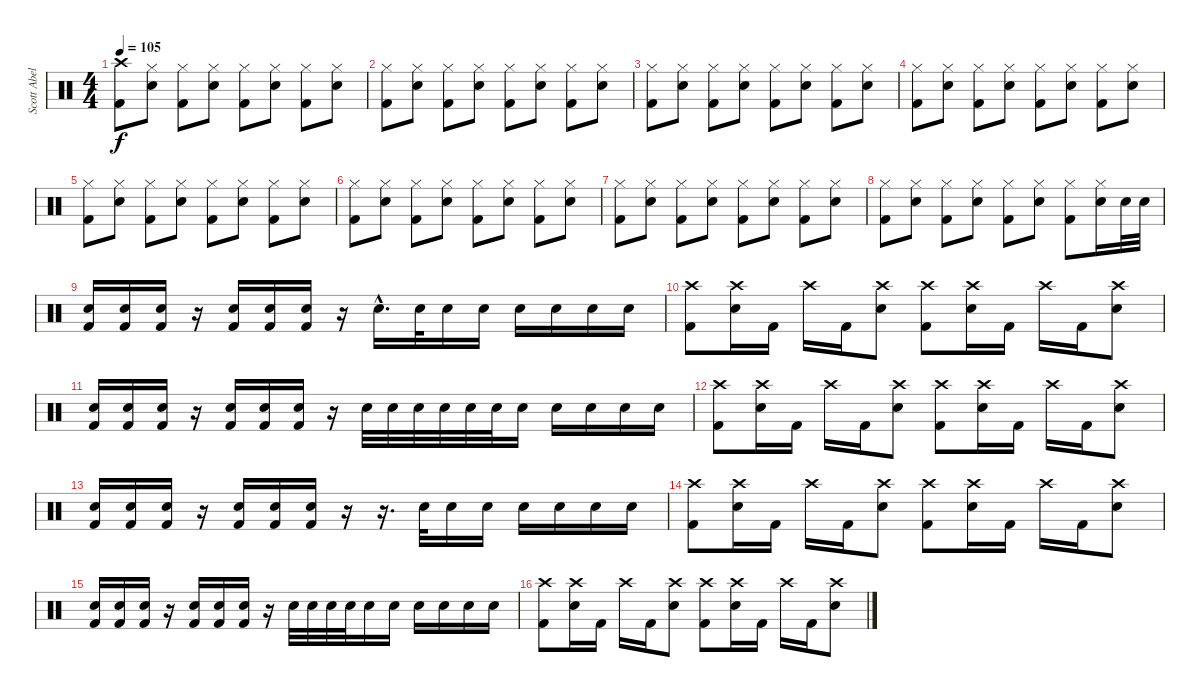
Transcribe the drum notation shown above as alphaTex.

\track ("Scott Abels - Drums" "Scott Abel") {instrument percussion}
\staff {score}
\articulation defaults
\ts (4 4)
\tempo 105
\clef neutral
\ks c
("Crash high (hit)" "Kick (hit) 2").8{dy f} ("Hi-Hat (closed)" "Electric Snare (hit)").8 ("Hi-Hat (closed)" "Kick (hit) 2").8 ("Hi-Hat (closed)" "Electric Snare (hit)").8 ("Hi-Hat (closed)" "Kick (hit) 2").8 ("Hi-Hat (closed)" "Electric Snare (hit)").8 ("Hi-Hat (closed)" "Kick (hit) 2").8 ("Hi-Hat (closed)" "Electric Snare (hit)").8 |
("Hi-Hat (closed)" "Kick (hit) 2").8 ("Hi-Hat (closed)" "Electric Snare (hit)").8 ("Hi-Hat (closed)" "Kick (hit) 2").8 ("Hi-Hat (closed)" "Electric Snare (hit)").8 ("Hi-Hat (closed)" "Kick (hit) 2").8 ("Hi-Hat (closed)" "Electric Snare (hit)").8 ("Hi-Hat (closed)" "Kick (hit) 2").8 ("Hi-Hat (closed)" "Electric Snare (hit)").8 |
("Hi-Hat (closed)" "Kick (hit) 2").8 ("Hi-Hat (closed)" "Electric Snare (hit)").8 ("Hi-Hat (closed)" "Kick (hit) 2").8 ("Hi-Hat (closed)" "Electric Snare (hit)").8 ("Hi-Hat (closed)" "Kick (hit) 2").8 ("Hi-Hat (closed)" "Electric Snare (hit)").8 ("Hi-Hat (closed)" "Kick (hit) 2").8 ("Hi-Hat (closed)" "Electric Snare (hit)").8 |
("Hi-Hat (closed)" "Kick (hit) 2").8 ("Hi-Hat (closed)" "Electric Snare (hit)").8 ("Hi-Hat (closed)" "Kick (hit) 2").8 ("Hi-Hat (closed)" "Electric Snare (hit)").8 ("Hi-Hat (closed)" "Kick (hit) 2").8 ("Hi-Hat (closed)" "Electric Snare (hit)").8 ("Hi-Hat (closed)" "Kick (hit) 2").8 ("Hi-Hat (closed)" "Electric Snare (hit)").8 |
("Hi-Hat (closed)" "Kick (hit) 2").8 ("Hi-Hat (closed)" "Electric Snare (hit)").8 ("Hi-Hat (closed)" "Kick (hit) 2").8 ("Hi-Hat (closed)" "Electric Snare (hit)").8 ("Hi-Hat (closed)" "Kick (hit) 2").8 ("Hi-Hat (closed)" "Electric Snare (hit)").8 ("Hi-Hat (closed)" "Kick (hit) 2").8 ("Hi-Hat (closed)" "Electric Snare (hit)").8 |
("Hi-Hat (closed)" "Kick (hit) 2").8 ("Hi-Hat (closed)" "Electric Snare (hit)").8 ("Hi-Hat (closed)" "Kick (hit) 2").8 ("Hi-Hat (closed)" "Electric Snare (hit)").8 ("Hi-Hat (closed)" "Kick (hit) 2").8 ("Hi-Hat (closed)" "Electric Snare (hit)").8 ("Hi-Hat (closed)" "Kick (hit) 2").8 ("Hi-Hat (closed)" "Electric Snare (hit)").8 |
("Hi-Hat (closed)" "Kick (hit) 2").8 ("Hi-Hat (closed)" "Electric Snare (hit)").8 ("Hi-Hat (closed)" "Kick (hit) 2").8 ("Hi-Hat (closed)" "Electric Snare (hit)").8 ("Hi-Hat (closed)" "Kick (hit) 2").8 ("Hi-Hat (closed)" "Electric Snare (hit)").8 ("Hi-Hat (closed)" "Kick (hit) 2").8 ("Hi-Hat (closed)" "Electric Snare (hit)").8 |
("Hi-Hat (closed)" "Kick (hit) 2").8 ("Hi-Hat (closed)" "Electric Snare (hit)").8 ("Hi-Hat (closed)" "Kick (hit) 2").8 ("Hi-Hat (closed)" "Electric Snare (hit)").8 ("Hi-Hat (closed)" "Kick (hit) 2").8 ("Hi-Hat (closed)" "Electric Snare (hit)").8 ("Hi-Hat (closed)" "Kick (hit) 2").8 ("Hi-Hat (closed)" "Electric Snare (hit)").16 "Electric Snare (hit)".32 "Electric Snare (hit)".32 |
("Electric Snare (hit)" "Kick (hit) 2").16 ("Electric Snare (hit)" "Kick (hit) 2").16 ("Electric Snare (hit)" "Kick (hit) 2").16 r.16 ("Electric Snare (hit)" "Kick (hit) 2").16 ("Electric Snare (hit)" "Kick (hit) 2").16 ("Electric Snare (hit)" "Kick (hit) 2").16 r.16 "Electric Snare (hit)"{hac}.16{d} "Electric Snare (hit)".32 "Electric Snare (hit)".16 "Electric Snare (hit)".16 "Electric Snare (hit)".16 "Electric Snare (hit)".16 "Electric Snare (hit)".16 "Electric Snare (hit)".16 |
("Crash high (hit)" "Kick (hit) 2").8 ("Crash high (hit)" "Electric Snare (hit)").16 "Kick (hit) 2".16 "Crash high (hit)".16 "Kick (hit) 2".16 ("Crash high (hit)" "Electric Snare (hit)").8 ("Crash high (hit)" "Kick (hit) 2").8 ("Crash high (hit)" "Electric Snare (hit)").16 "Kick (hit) 2".16 "Crash high (hit)".16 "Kick (hit) 2".16 ("Crash high (hit)" "Electric Snare (hit)").8 |
("Electric Snare (hit)" "Kick (hit) 2").16 ("Electric Snare (hit)" "Kick (hit) 2").16 ("Electric Snare (hit)" "Kick (hit) 2").16 r.16 ("Electric Snare (hit)" "Kick (hit) 2").16 ("Electric Snare (hit)" "Kick (hit) 2").16 ("Electric Snare (hit)" "Kick (hit) 2").16 r.16 "Electric Snare (hit)".32 "Electric Snare (hit)".32 "Electric Snare (hit)".32 "Electric Snare (hit)".32 "Electric Snare (hit)".32 "Electric Snare (hit)".32 "Electric Snare (hit)".16 "Electric Snare (hit)".16 "Electric Snare (hit)".16 "Electric Snare (hit)".16 "Electric Snare (hit)".16 |
("Crash high (hit)" "Kick (hit) 2").8 ("Crash high (hit)" "Electric Snare (hit)").16 "Kick (hit) 2".16 "Crash high (hit)".16 "Kick (hit) 2".16 ("Crash high (hit)" "Electric Snare (hit)").8 ("Crash high (hit)" "Kick (hit) 2").8 ("Crash high (hit)" "Electric Snare (hit)").16 "Kick (hit) 2".16 "Crash high (hit)".16 "Kick (hit) 2".16 ("Crash high (hit)" "Electric Snare (hit)").8 |
("Electric Snare (hit)" "Kick (hit) 2").16 ("Electric Snare (hit)" "Kick (hit) 2").16 ("Electric Snare (hit)" "Kick (hit) 2").16 r.16 ("Electric Snare (hit)" "Kick (hit) 2").16 ("Electric Snare (hit)" "Kick (hit) 2").16 ("Electric Snare (hit)" "Kick (hit) 2").16 r.16 r.16{d} "Electric Snare (hit)".32 "Electric Snare (hit)".16 "Electric Snare (hit)".16 "Electric Snare (hit)".16 "Electric Snare (hit)".16 "Electric Snare (hit)".16 "Electric Snare (hit)".16 |
("Crash high (hit)" "Kick (hit) 2").8 ("Crash high (hit)" "Electric Snare (hit)").16 "Kick (hit) 2".16 "Crash high (hit)".16 "Kick (hit) 2".16 ("Crash high (hit)" "Electric Snare (hit)").8 ("Crash high (hit)" "Kick (hit) 2").8 ("Crash high (hit)" "Electric Snare (hit)").16 "Kick (hit) 2".16 "Crash high (hit)".16 "Kick (hit) 2".16 ("Crash high (hit)" "Electric Snare (hit)").8 |
("Electric Snare (hit)" "Kick (hit) 2").16 ("Electric Snare (hit)" "Kick (hit) 2").16 ("Electric Snare (hit)" "Kick (hit) 2").16 r.16 ("Electric Snare (hit)" "Kick (hit) 2").16 ("Electric Snare (hit)" "Kick (hit) 2").16 ("Electric Snare (hit)" "Kick (hit) 2").16 r.16 "Electric Snare (hit)".32 "Electric Snare (hit)".32 "Electric Snare (hit)".32 "Electric Snare (hit)".32 "Electric Snare (hit)".16 "Electric Snare (hit)".16 "Electric Snare (hit)".16 "Electric Snare (hit)".16 "Electric Snare (hit)".16 "Electric Snare (hit)".16 |
("Crash high (hit)" "Kick (hit) 2").8 ("Crash high (hit)" "Electric Snare (hit)").16 "Kick (hit) 2".16 "Crash high (hit)".16 "Kick (hit) 2".16 ("Crash high (hit)" "Electric Snare (hit)").8 ("Crash high (hit)" "Kick (hit) 2").8 ("Crash high (hit)" "Electric Snare (hit)").16 "Kick (hit) 2".16 "Crash high (hit)".16 "Kick (hit) 2".16 ("Crash high (hit)" "Electric Snare (hit)").8
